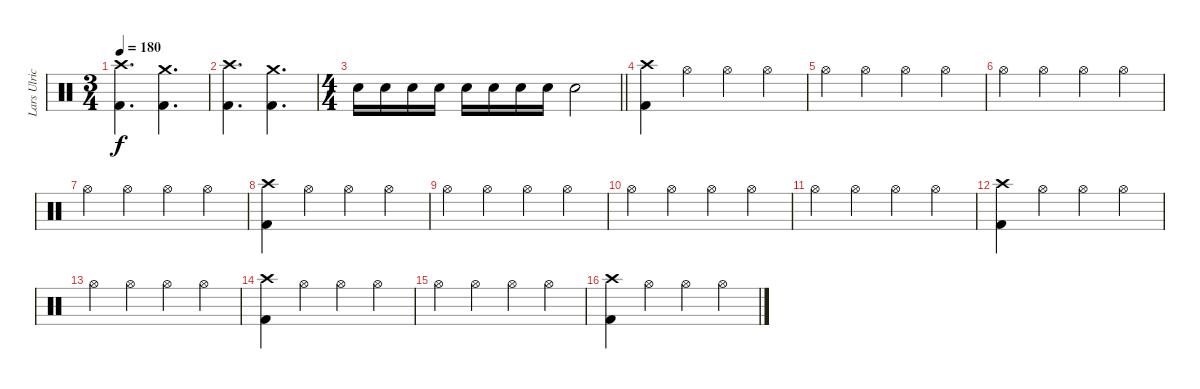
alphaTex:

\track ("Lars Ulrich" "Lars Ulric") {instrument percussion}
\staff {score}
\articulation defaults
\ts (3 4)
\tempo 180
\clef neutral
\ks c
("Crash high (hit)" "Kick (hit) 2").4{d dy f} ("Crash medium (hit)" "Kick (hit) 2").4{d} |
("Crash high (hit)" "Kick (hit) 2").4{d} ("Crash medium (hit)" "Kick (hit) 2").4{d} |
\ts (4 4)
\barLineRight lightlight "Electric Snare (hit)".16 "Electric Snare (hit)".16 "Electric Snare (hit)".16 "Electric Snare (hit)".16 "Electric Snare (hit)".16 "Electric Snare (hit)".16 "Electric Snare (hit)".16 "Electric Snare (hit)".16 "Electric Snare (hit)".2
|
\section ("" "")
("Crash high (hit)" "Kick (hit) 2").4 "Hi-Hat (open)".4 "Hi-Hat (open)".4 "Hi-Hat (open)".4 |
"Hi-Hat (open)".4 "Hi-Hat (open)".4 "Hi-Hat (open)".4 "Hi-Hat (open)".4 |
"Hi-Hat (open)".4 "Hi-Hat (open)".4 "Hi-Hat (open)".4 "Hi-Hat (open)".4 |
"Hi-Hat (open)".4 "Hi-Hat (open)".4 "Hi-Hat (open)".4 "Hi-Hat (open)".4 |
("Crash high (hit)" "Kick (hit) 2").4 "Hi-Hat (open)".4 "Hi-Hat (open)".4 "Hi-Hat (open)".4 |
"Hi-Hat (open)".4 "Hi-Hat (open)".4 "Hi-Hat (open)".4 "Hi-Hat (open)".4 |
"Hi-Hat (open)".4 "Hi-Hat (open)".4 "Hi-Hat (open)".4 "Hi-Hat (open)".4 |
"Hi-Hat (open)".4 "Hi-Hat (open)".4 "Hi-Hat (open)".4 "Hi-Hat (open)".4 |
("Crash high (hit)" "Kick (hit) 2").4 "Hi-Hat (open)".4 "Hi-Hat (open)".4 "Hi-Hat (open)".4 |
"Hi-Hat (open)".4 "Hi-Hat (open)".4 "Hi-Hat (open)".4 "Hi-Hat (open)".4 |
("Crash high (hit)" "Kick (hit) 2").4 "Hi-Hat (open)".4 "Hi-Hat (open)".4 "Hi-Hat (open)".4 |
"Hi-Hat (open)".4 "Hi-Hat (open)".4 "Hi-Hat (open)".4 "Hi-Hat (open)".4 |
("Crash high (hit)" "Kick (hit) 2").4 "Hi-Hat (open)".4 "Hi-Hat (open)".4 "Hi-Hat (open)".4
